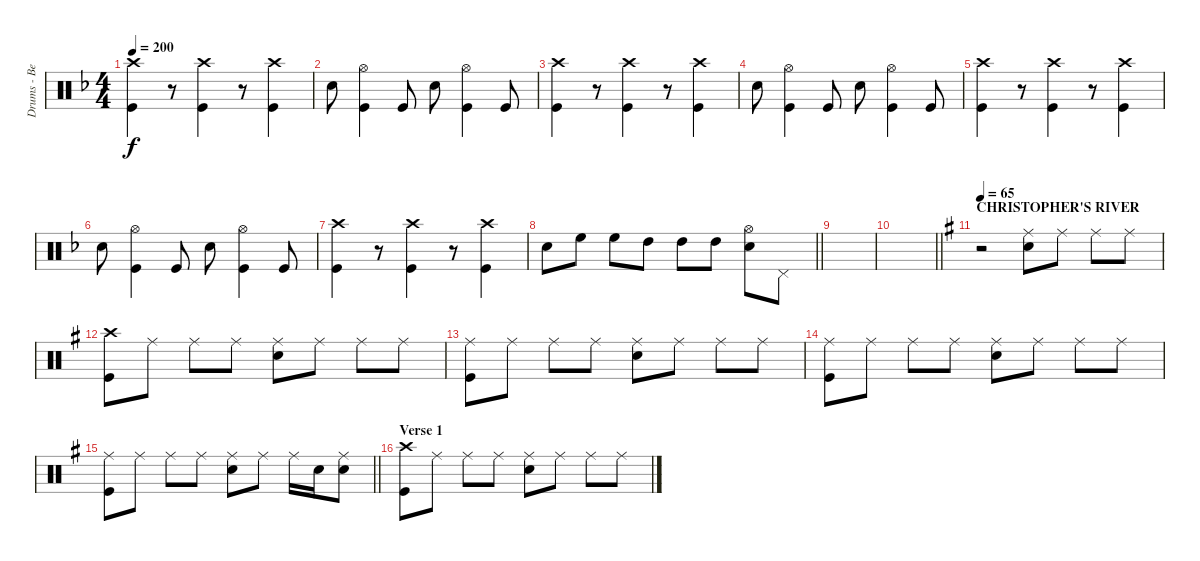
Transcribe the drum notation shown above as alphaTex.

\track ("Drums - Ben Johnston" "Drums - Be") {instrument percussion}
\staff {score}
\articulation defaults
\ts (4 4)
\tempo 200
\clef neutral
\ks f
("Crash high (hit)" "Kick (hit)").4{dy f} r.8 ("Crash high (hit)" "Kick (hit)").4 r.8 ("Crash high (hit)" "Kick (hit)").4 |
"Snare (hit) 2".8 ("Hi-Hat (open)" "Kick (hit)").4 "Kick (hit)".8 "Snare (hit) 2".8 ("Hi-Hat (open)" "Kick (hit)").4 "Kick (hit)".8 |
("Crash high (hit)" "Kick (hit)").4 r.8 ("Crash high (hit)" "Kick (hit)").4 r.8 ("Crash high (hit)" "Kick (hit)").4 |
"Snare (hit) 2".8 ("Hi-Hat (open)" "Kick (hit)").4 "Kick (hit)".8 "Snare (hit) 2".8 ("Hi-Hat (open)" "Kick (hit)").4 "Kick (hit)".8 |
("Crash high (hit)" "Kick (hit)").4 r.8 ("Crash high (hit)" "Kick (hit)").4 r.8 ("Crash high (hit)" "Kick (hit)").4 |
"Snare (hit) 2".8 ("Hi-Hat (open)" "Kick (hit)").4 "Kick (hit)".8 "Snare (hit) 2".8 ("Hi-Hat (open)" "Kick (hit)").4 "Kick (hit)".8 |
("Crash high (hit)" "Kick (hit)").4 r.8 ("Crash high (hit)" "Kick (hit)").4 r.8 ("Crash high (hit)" "Kick (hit)").4 |
\barLineRight lightlight "Snare (hit) 2".8 "High Floor Tom (hit)".8 "High Floor Tom (hit)".8 "High Tom (hit)".8 "High Tom (hit)".8 "High Tom (hit)".8
("Hi-Hat (open)" "Snare (hit) 2").8 "Pedal Hi-Hat (hit)".8 |
|
\barLineRight lightlight
|
\section ("" "CHRISTOPHER'S RIVER")
\tempo 65
\ks g
r.2 ("Ride (middle)" "Snare (hit) 2").8 "Ride (middle)".8 "Ride (middle)".8 "Ride (middle)".8 |
("Crash high (hit)" "Kick (hit)").8 "Ride (middle)".8 "Ride (middle)".8 "Ride (middle)".8 ("Ride (middle)" "Snare (hit) 2").8 "Ride (middle)".8 "Ride (middle)".8 "Ride (middle)".8 |
("Ride (middle)" "Kick (hit)").8 "Ride (middle)".8 "Ride (middle)".8 "Ride (middle)".8 ("Ride (middle)" "Snare (hit) 2").8 "Ride (middle)".8 "Ride (middle)".8 "Ride (middle)".8 |
("Ride (middle)" "Kick (hit)").8 "Ride (middle)".8 "Ride (middle)".8 "Ride (middle)".8 ("Ride (middle)" "Snare (hit) 2").8 "Ride (middle)".8 "Ride (middle)".8 "Ride (middle)".8 |
\barLineRight lightlight
("Ride (middle)" "Kick (hit)").8 "Ride (middle)".8 "Ride (middle)".8 "Ride (middle)".8 ("Ride (middle)" "Snare (hit) 2").8 "Ride (middle)".8 "Ride (middle)".16 "Snare (hit) 2".16 ("Ride (middle)" "Snare (hit) 2").8 |
\section ("" "Verse 1")
("Crash high (hit)" "Kick (hit)").8 "Ride (middle)".8 "Ride (middle)".8 "Ride (middle)".8 ("Ride (middle)" "Snare (hit) 2").8 "Ride (middle)".8 "Ride (middle)".8 "Ride (middle)".8
